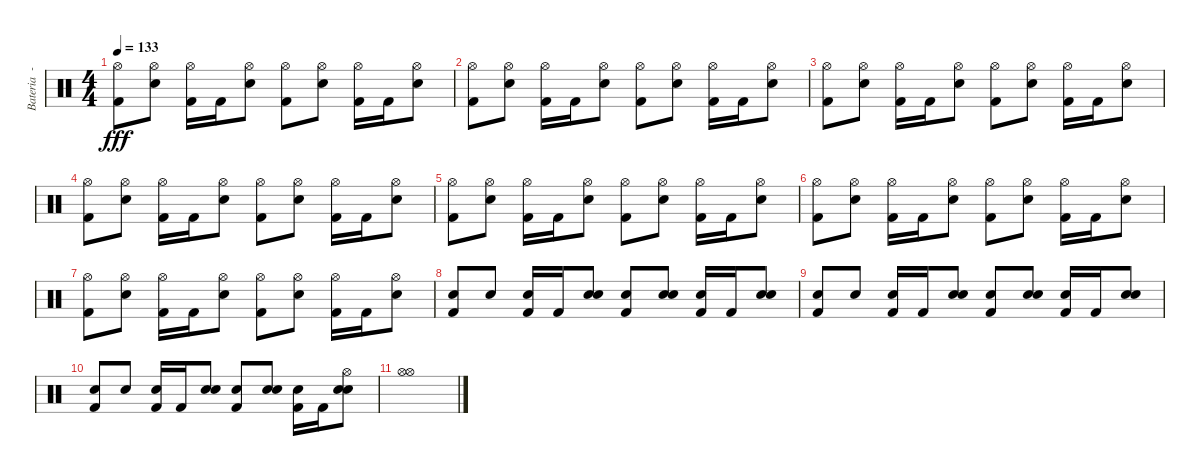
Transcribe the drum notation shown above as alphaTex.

\track ("Bateria  - Larzon" "Bateria  -") {instrument percussion}
\staff {score}
\articulation defaults
\ts (4 4)
\tempo 133
\clef neutral
\ks c
("Kick (hit) 2" "Hi-Hat (open)").8{dy fff} ("Electric Snare (hit)" "Hi-Hat (open)").8 ("Kick (hit) 2" "Hi-Hat (open)").16 "Kick (hit) 2".16 ("Electric Snare (hit)" "Hi-Hat (open)").8 ("Kick (hit) 2" "Hi-Hat (open)").8 ("Electric Snare (hit)" "Hi-Hat (open)").8 ("Kick (hit) 2" "Hi-Hat (open)").16 "Kick (hit) 2".16 ("Electric Snare (hit)" "Hi-Hat (open)").8 |
("Kick (hit) 2" "Hi-Hat (open)").8 ("Electric Snare (hit)" "Hi-Hat (open)").8 ("Kick (hit) 2" "Hi-Hat (open)").16 "Kick (hit) 2".16 ("Electric Snare (hit)" "Hi-Hat (open)").8 ("Kick (hit) 2" "Hi-Hat (open)").8 ("Electric Snare (hit)" "Hi-Hat (open)").8 ("Kick (hit) 2" "Hi-Hat (open)").16 "Kick (hit) 2".16 ("Electric Snare (hit)" "Hi-Hat (open)").8 |
("Kick (hit) 2" "Hi-Hat (open)").8 ("Electric Snare (hit)" "Hi-Hat (open)").8 ("Kick (hit) 2" "Hi-Hat (open)").16 "Kick (hit) 2".16 ("Electric Snare (hit)" "Hi-Hat (open)").8 ("Kick (hit) 2" "Hi-Hat (open)").8 ("Electric Snare (hit)" "Hi-Hat (open)").8 ("Kick (hit) 2" "Hi-Hat (open)").16 "Kick (hit) 2".16 ("Electric Snare (hit)" "Hi-Hat (open)").8 |
("Kick (hit) 2" "Hi-Hat (open)").8 ("Electric Snare (hit)" "Hi-Hat (open)").8 ("Kick (hit) 2" "Hi-Hat (open)").16 "Kick (hit) 2".16 ("Electric Snare (hit)" "Hi-Hat (open)").8 ("Kick (hit) 2" "Hi-Hat (open)").8 ("Electric Snare (hit)" "Hi-Hat (open)").8 ("Kick (hit) 2" "Hi-Hat (open)").16 "Kick (hit) 2".16 ("Electric Snare (hit)" "Hi-Hat (open)").8 |
("Kick (hit) 2" "Hi-Hat (open)").8 ("Electric Snare (hit)" "Hi-Hat (open)").8 ("Kick (hit) 2" "Hi-Hat (open)").16 "Kick (hit) 2".16 ("Electric Snare (hit)" "Hi-Hat (open)").8 ("Kick (hit) 2" "Hi-Hat (open)").8 ("Electric Snare (hit)" "Hi-Hat (open)").8 ("Kick (hit) 2" "Hi-Hat (open)").16 "Kick (hit) 2".16 ("Electric Snare (hit)" "Hi-Hat (open)").8 |
("Kick (hit) 2" "Hi-Hat (open)").8 ("Electric Snare (hit)" "Hi-Hat (open)").8 ("Kick (hit) 2" "Hi-Hat (open)").16 "Kick (hit) 2".16 ("Electric Snare (hit)" "Hi-Hat (open)").8 ("Kick (hit) 2" "Hi-Hat (open)").8 ("Electric Snare (hit)" "Hi-Hat (open)").8 ("Kick (hit) 2" "Hi-Hat (open)").16 "Kick (hit) 2".16 ("Electric Snare (hit)" "Hi-Hat (open)").8 |
("Kick (hit) 2" "Hi-Hat (open)").8 ("Electric Snare (hit)" "Hi-Hat (open)").8 ("Kick (hit) 2" "Hi-Hat (open)").16 "Kick (hit) 2".16 ("Electric Snare (hit)" "Hi-Hat (open)").8 ("Kick (hit) 2" "Hi-Hat (open)").8 ("Electric Snare (hit)" "Hi-Hat (open)").8 ("Kick (hit) 2" "Hi-Hat (open)").16 "Kick (hit) 2".16 ("Electric Snare (hit)" "Hi-Hat (open)").8 |
("Kick (hit) 2" "Electric Snare (hit)").8 "Electric Snare (hit)".8 ("Kick (hit) 2" "Electric Snare (hit)").16 "Kick (hit) 2".16 ("Electric Snare (hit)" "Electric Snare (hit)").8 ("Kick (hit) 2" "Electric Snare (hit)").8 ("Electric Snare (hit)" "Electric Snare (hit)").8 ("Kick (hit) 2" "Electric Snare (hit)").16 "Kick (hit) 2".16 ("Electric Snare (hit)" "Electric Snare (hit)").8 |
("Kick (hit) 2" "Electric Snare (hit)").8 "Electric Snare (hit)".8 ("Kick (hit) 2" "Electric Snare (hit)").16 "Kick (hit) 2".16 ("Electric Snare (hit)" "Electric Snare (hit)").8 ("Kick (hit) 2" "Electric Snare (hit)").8 ("Electric Snare (hit)" "Electric Snare (hit)").8 ("Kick (hit) 2" "Electric Snare (hit)").16 "Kick (hit) 2".16 ("Electric Snare (hit)" "Electric Snare (hit)").8 |
("Kick (hit) 2" "Electric Snare (hit)").8 "Electric Snare (hit)".8 ("Kick (hit) 2" "Electric Snare (hit)").16 "Kick (hit) 2".16 ("Electric Snare (hit)" "Electric Snare (hit)").8 ("Kick (hit) 2" "Electric Snare (hit)").8 ("Electric Snare (hit)" "Electric Snare (hit)").8 ("Kick (hit) 2" "Electric Snare (hit)").16 "Kick (hit) 2".16 ("Electric Snare (hit)" "Electric Snare (hit)" "Hi-Hat (open)").8 |
("Hi-Hat (open)" "Hi-Hat (open)").1
